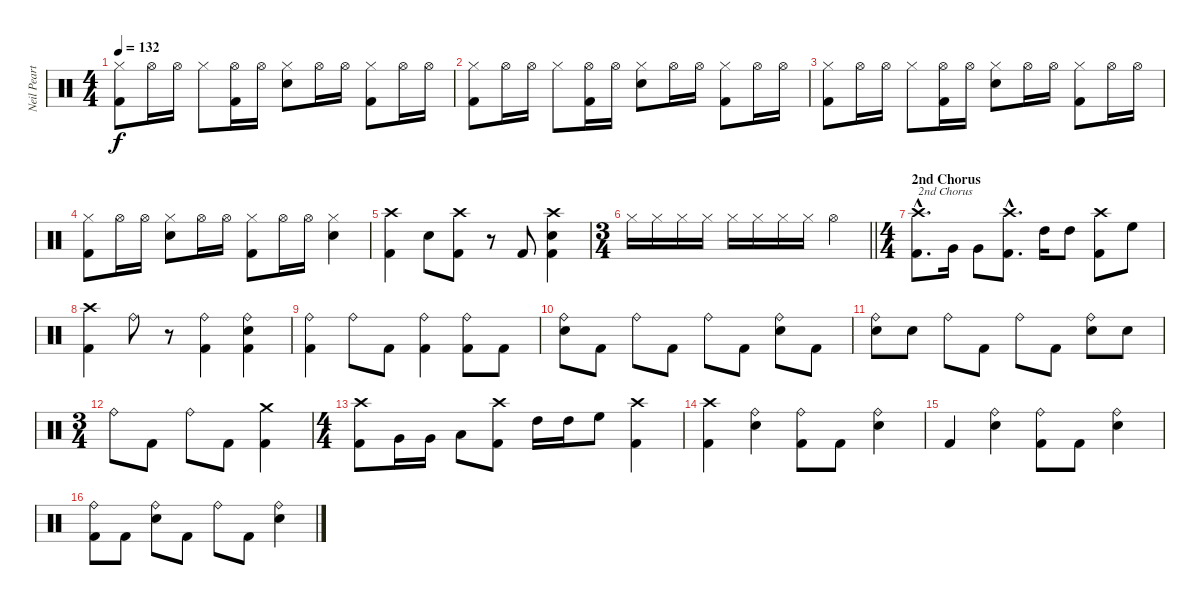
\track ("Neil Peart" "Neil Peart") {instrument percussion}
\staff {score}
\articulation defaults
\ts (4 4)
\tempo 132
\clef neutral
\ks c
("Hi-Hat (closed)" "Kick (hit) 2").8{dy f} "Hi-Hat (open)".16 "Hi-Hat (open)".16 "Hi-Hat (closed)".8 ("Hi-Hat (open)" "Kick (hit) 2").16 "Hi-Hat (open)".16 ("Hi-Hat (closed)" "Electric Snare (hit)").8 "Hi-Hat (open)".16 "Hi-Hat (open)".16 ("Hi-Hat (closed)" "Kick (hit) 2").8 "Hi-Hat (open)".16 "Hi-Hat (open)".16 |
("Hi-Hat (closed)" "Kick (hit) 2").8 "Hi-Hat (open)".16 "Hi-Hat (open)".16 "Hi-Hat (closed)".8 ("Hi-Hat (open)" "Kick (hit) 2").16 "Hi-Hat (open)".16 ("Hi-Hat (closed)" "Electric Snare (hit)").8 "Hi-Hat (open)".16 "Hi-Hat (open)".16 ("Hi-Hat (closed)" "Kick (hit) 2").8 "Hi-Hat (open)".16 "Hi-Hat (open)".16 |
("Hi-Hat (closed)" "Kick (hit) 2").8 "Hi-Hat (open)".16 "Hi-Hat (open)".16 "Hi-Hat (closed)".8 ("Hi-Hat (open)" "Kick (hit) 2").16 "Hi-Hat (open)".16 ("Hi-Hat (closed)" "Electric Snare (hit)").8 "Hi-Hat (open)".16 "Hi-Hat (open)".16 ("Hi-Hat (closed)" "Kick (hit) 2").8 "Hi-Hat (open)".16 "Hi-Hat (open)".16 |
("Hi-Hat (closed)" "Kick (hit) 2").8 "Hi-Hat (open)".16 "Hi-Hat (open)".16 ("Hi-Hat (closed)" "Electric Snare (hit)").8 "Hi-Hat (open)".16 "Hi-Hat (open)".16 ("Hi-Hat (closed)" "Kick (hit) 2").8 "Hi-Hat (open)".16 "Hi-Hat (open)".16 ("Hi-Hat (closed)" "Electric Snare (hit)").4 |
("Crash high (hit)" "Kick (hit) 2").4 "Electric Snare (hit)".8 ("Crash high (hit)" "Kick (hit) 2").8 r.8 "Kick (hit) 2".8 ("Crash high (hit)" "Electric Snare (hit)" "Kick (hit) 2").4 |
\ts (3 4)
\barLineRight lightlight "Hi-Hat (closed)".16 "Hi-Hat (closed)".16 "Hi-Hat (closed)".16 "Hi-Hat (closed)".16 "Hi-Hat (closed)".16 "Hi-Hat (closed)".16 "Hi-Hat (closed)".16 "Hi-Hat (closed)".16 "Hi-Hat (open)".4
|
\ts (4 4)
\section ("" "2nd Chorus")
("Crash high (hit)"{hac} "Kick (hit) 2"{hac}).8{d txt "2nd Chorus"} "Very Low Tom (hit)".16 "Very Low Tom (hit)".8 ("Crash high (hit)"{hac} "Kick (hit) 2"{hac}).8{d} "High Tom (hit)".16 "High Tom (hit)".8 ("Crash high (hit)" "Kick (hit) 2").8 "High Floor Tom (hit)".8 |
("Crash high (hit)" "Kick (hit) 2").4 "Ride (bell)".8 r.8 ("Ride (bell)" "Kick (hit) 2").4 ("Ride (bell)" "Electric Snare (hit)" "Kick (hit) 2").4 |
("Ride (bell)" "Kick (hit) 2").4 "Ride (bell)".8 "Kick (hit) 2".8 ("Ride (bell)" "Kick (hit) 2").4 ("Ride (bell)" "Kick (hit) 2").8 "Kick (hit) 2".8 |
("Ride (bell)" "Electric Snare (hit)").8 "Kick (hit) 2".8 "Ride (bell)".8 "Kick (hit) 2".8 "Ride (bell)".8 "Kick (hit) 2".8 ("Ride (bell)" "Electric Snare (hit)").8 "Kick (hit) 2".8 |
("Ride (bell)" "Electric Snare (hit)").8 "Electric Snare (hit)".8 "Ride (bell)".8 "Kick (hit) 2".8 "Ride (bell)".8 "Kick (hit) 2".8 ("Ride (bell)" "Electric Snare (hit)").8 "Electric Snare (hit)".8 |
\ts (3 4)
"Ride (bell)".8 "Kick (hit) 2".8 "Ride (bell)".8 "Kick (hit) 2".8 ("Crash medium (hit)" "Kick (hit) 2").4 |
\ts (4 4)
("Crash high (hit)" "Kick (hit) 2").8 "Very Low Tom (hit)".16 "Very Low Tom (hit)".16 "Low Tom (hit)".8 ("Crash high (hit)" "Kick (hit) 2").8 "High Tom (hit)".16 "High Tom (hit)".16 "High Floor Tom (hit)".8 ("Crash high (hit)" "Kick (hit) 2").4 |
("Crash high (hit)" "Kick (hit) 2").4 ("Ride (bell)" "Electric Snare (hit)").4 ("Ride (bell)" "Kick (hit) 2").8 "Kick (hit) 2".8 ("Ride (bell)" "Electric Snare (hit)").4 |
"Kick (hit) 2".4 ("Ride (bell)" "Electric Snare (hit)").4 ("Ride (bell)" "Kick (hit) 2").8 "Kick (hit) 2".8 ("Ride (bell)" "Electric Snare (hit)").4 |
("Ride (bell)" "Kick (hit) 2").8 "Kick (hit) 2".8 ("Ride (bell)" "Electric Snare (hit)").8 "Kick (hit) 2".8 "Ride (bell)".8 "Kick (hit) 2".8 ("Ride (bell)" "Electric Snare (hit)").4
